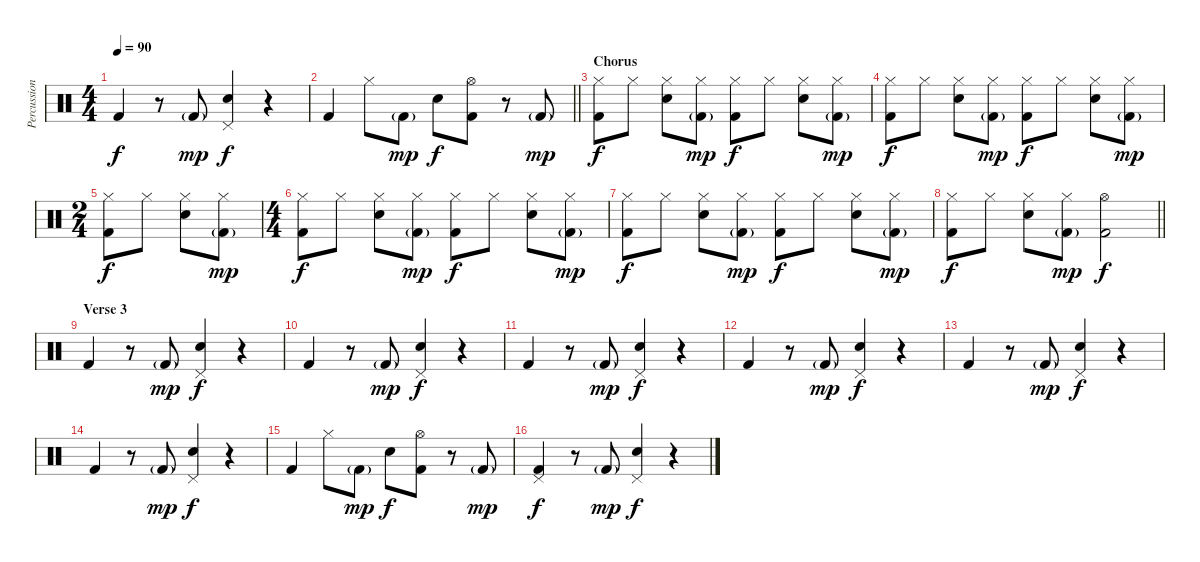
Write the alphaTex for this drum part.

\track ("Percussion" "Percussion") {instrument percussion}
\staff {score}
\articulation defaults
\ts (4 4)
\tempo 90
\clef neutral
\ks c "Kick (hit) 2".4{dy f}
r.8 "Kick (hit) 2"{g}.8{dy mp} ("Pedal Hi-Hat (hit)" "Snare (hit) 2").4{dy f} r.4 |
\barLineRight lightlight "Kick (hit) 2".4 "Hi-Hat (closed)".8 "Kick (hit) 2"{g}.8{dy mp} "Snare (hit) 2".8{dy f}
("Hi-Hat (open)" "Kick (hit) 2").8 r.8 "Kick (hit) 2"{g}.8{dy mp} |
\section ("" "Chorus")
("Hi-Hat (closed)" "Kick (hit) 2").8{dy f} "Hi-Hat (closed)".8 ("Hi-Hat (closed)" "Snare (hit) 2").8 ("Hi-Hat (closed)" "Kick (hit) 2"{g}).8{dy mp} ("Hi-Hat (closed)" "Kick (hit) 2").8{dy f} "Hi-Hat (closed)".8 ("Hi-Hat (closed)" "Snare (hit) 2").8 ("Hi-Hat (closed)" "Kick (hit) 2"{g}).8{dy mp} |
("Hi-Hat (closed)" "Kick (hit) 2").8{dy f} "Hi-Hat (closed)".8 ("Hi-Hat (closed)" "Snare (hit) 2").8 ("Hi-Hat (closed)" "Kick (hit) 2"{g}).8{dy mp} ("Hi-Hat (closed)" "Kick (hit) 2").8{dy f} "Hi-Hat (closed)".8 ("Hi-Hat (closed)" "Snare (hit) 2").8 ("Hi-Hat (closed)" "Kick (hit) 2"{g}).8{dy mp} |
\ts (2 4)
("Hi-Hat (closed)" "Kick (hit) 2").8{dy f} "Hi-Hat (closed)".8 ("Hi-Hat (closed)" "Snare (hit) 2").8 ("Hi-Hat (closed)" "Kick (hit) 2"{g}).8{dy mp} |
\ts (4 4)
("Hi-Hat (closed)" "Kick (hit) 2").8{dy f} "Hi-Hat (closed)".8 ("Hi-Hat (closed)" "Snare (hit) 2").8 ("Hi-Hat (closed)" "Kick (hit) 2"{g}).8{dy mp} ("Hi-Hat (closed)" "Kick (hit) 2").8{dy f} "Hi-Hat (closed)".8 ("Hi-Hat (closed)" "Snare (hit) 2").8 ("Hi-Hat (closed)" "Kick (hit) 2"{g}).8{dy mp} |
("Hi-Hat (closed)" "Kick (hit) 2").8{dy f} "Hi-Hat (closed)".8 ("Hi-Hat (closed)" "Snare (hit) 2").8 ("Hi-Hat (closed)" "Kick (hit) 2"{g}).8{dy mp} ("Hi-Hat (closed)" "Kick (hit) 2").8{dy f} "Hi-Hat (closed)".8 ("Hi-Hat (closed)" "Snare (hit) 2").8 ("Hi-Hat (closed)" "Kick (hit) 2"{g}).8{dy mp} |
\barLineRight lightlight
("Hi-Hat (closed)" "Kick (hit) 2").8{dy f} "Hi-Hat (closed)".8 ("Hi-Hat (closed)" "Snare (hit) 2").8 ("Hi-Hat (closed)" "Kick (hit) 2"{g}).8{dy mp} ("Hi-Hat (open)" "Kick (hit) 2").2{dy f} |
\section ("" "Verse 3")
"Kick (hit) 2".4 r.8 "Kick (hit) 2"{g}.8{dy mp} ("Pedal Hi-Hat (hit)" "Snare (hit) 2").4{dy f} r.4 |
"Kick (hit) 2".4 r.8 "Kick (hit) 2"{g}.8{dy mp} ("Pedal Hi-Hat (hit)" "Snare (hit) 2").4{dy f} r.4 |
"Kick (hit) 2".4 r.8 "Kick (hit) 2"{g}.8{dy mp} ("Pedal Hi-Hat (hit)" "Snare (hit) 2").4{dy f} r.4 |
"Kick (hit) 2".4 r.8 "Kick (hit) 2"{g}.8{dy mp} ("Pedal Hi-Hat (hit)" "Snare (hit) 2").4{dy f} r.4 |
"Kick (hit) 2".4 r.8 "Kick (hit) 2"{g}.8{dy mp} ("Pedal Hi-Hat (hit)" "Snare (hit) 2").4{dy f} r.4 |
"Kick (hit) 2".4 r.8 "Kick (hit) 2"{g}.8{dy mp} ("Pedal Hi-Hat (hit)" "Snare (hit) 2").4{dy f} r.4 |
"Kick (hit) 2".4 "Hi-Hat (closed)".8 "Kick (hit) 2"{g}.8{dy mp} "Snare (hit) 2".8{dy f} ("Hi-Hat (open)" "Kick (hit) 2").8 r.8 "Kick (hit) 2"{g}.8{dy mp} |
("Pedal Hi-Hat (hit)" "Kick (hit) 2").4{dy f} r.8 "Kick (hit) 2"{g}.8{dy mp} ("Pedal Hi-Hat (hit)" "Snare (hit) 2").4{dy f} r.4
